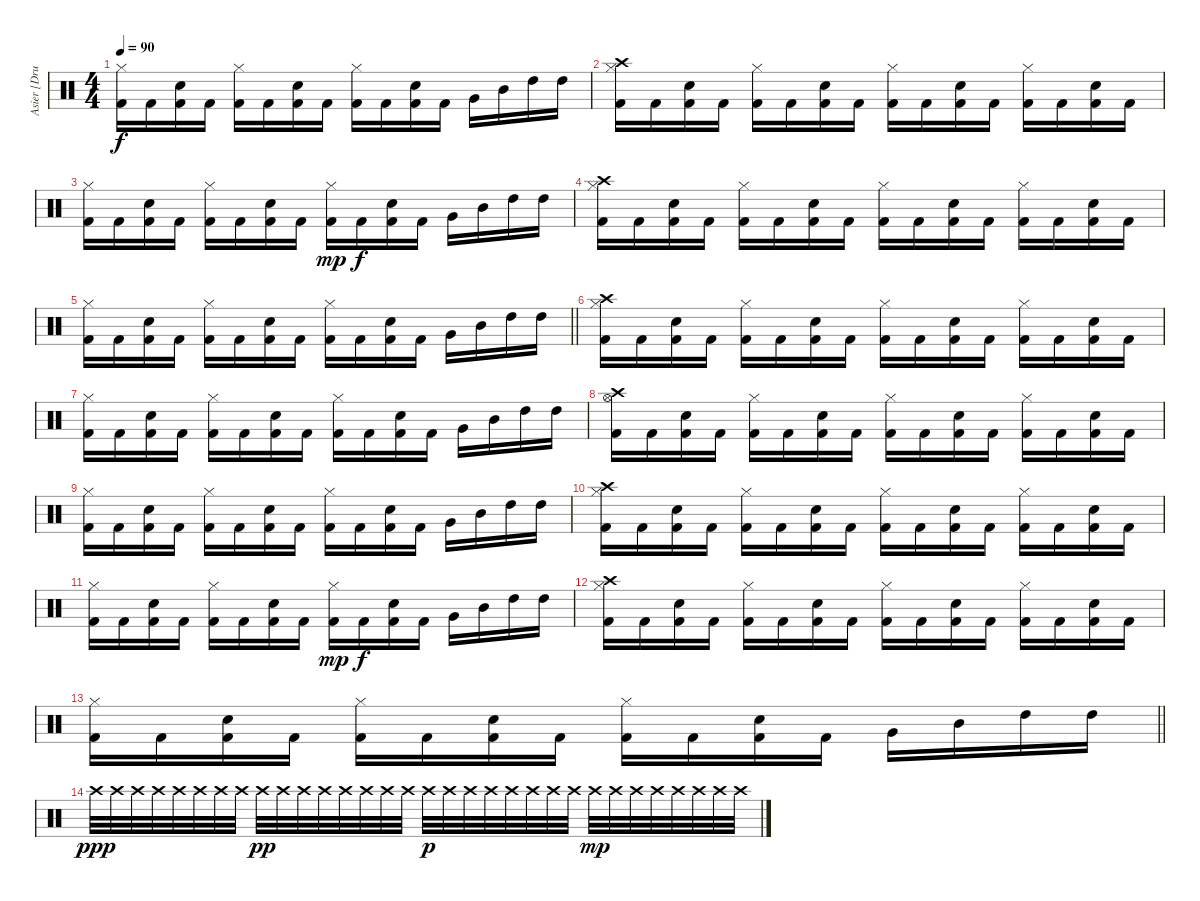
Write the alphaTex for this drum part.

\track ("Asier [Drums]" "Asier [Dru") {instrument percussion}
\staff {score}
\articulation defaults
\ts (4 4)
\tempo 90
\clef neutral
\ks c
("Hi-Hat (closed)" "Kick (hit) 2").16{dy f} "Kick (hit) 2".16 ("Snare (hit) 2" "Kick (hit) 2").16 "Kick (hit) 2".16 ("Hi-Hat (closed)" "Kick (hit) 2").16 "Kick (hit) 2".16 ("Snare (hit) 2" "Kick (hit) 2").16 "Kick (hit) 2".16 ("Hi-Hat (closed)" "Kick (hit) 2").16 "Kick (hit) 2".16 ("Snare (hit) 2" "Kick (hit) 2").16 "Kick (hit) 2".16 "Very Low Tom (hit)".16 "Mid Tom (hit)".16 "High Tom (hit)".16 "High Tom (hit)".16 |
("Crash high (hit)" "Hi-Hat (closed)" "Kick (hit) 2").16 "Kick (hit) 2".16 ("Snare (hit) 2" "Kick (hit) 2").16 "Kick (hit) 2".16 ("Hi-Hat (closed)" "Kick (hit) 2").16 "Kick (hit) 2".16 ("Snare (hit) 2" "Kick (hit) 2").16 "Kick (hit) 2".16 ("Hi-Hat (closed)" "Kick (hit) 2").16 "Kick (hit) 2".16 ("Snare (hit) 2" "Kick (hit) 2").16 "Kick (hit) 2".16 ("Hi-Hat (closed)" "Kick (hit) 2").16 "Kick (hit) 2".16 ("Snare (hit) 2" "Kick (hit) 2").16 "Kick (hit) 2".16 |
("Hi-Hat (closed)" "Kick (hit) 2").16 "Kick (hit) 2".16 ("Snare (hit) 2" "Kick (hit) 2").16 "Kick (hit) 2".16 ("Hi-Hat (closed)" "Kick (hit) 2").16 "Kick (hit) 2".16 ("Snare (hit) 2" "Kick (hit) 2").16 "Kick (hit) 2".16 ("Hi-Hat (closed)" "Kick (hit) 2").16{dy mp} "Kick (hit) 2".16{dy f} ("Snare (hit) 2" "Kick (hit) 2").16 "Kick (hit) 2".16 "Very Low Tom (hit)".16 "Mid Tom (hit)".16 "High Tom (hit)".16 "High Tom (hit)".16 |
("Crash high (hit)" "Hi-Hat (closed)" "Kick (hit) 2").16 "Kick (hit) 2".16 ("Snare (hit) 2" "Kick (hit) 2").16 "Kick (hit) 2".16 ("Hi-Hat (closed)" "Kick (hit) 2").16 "Kick (hit) 2".16 ("Snare (hit) 2" "Kick (hit) 2").16 "Kick (hit) 2".16 ("Hi-Hat (closed)" "Kick (hit) 2").16 "Kick (hit) 2".16 ("Snare (hit) 2" "Kick (hit) 2").16 "Kick (hit) 2".16 ("Hi-Hat (closed)" "Kick (hit) 2").16 "Kick (hit) 2".16 ("Snare (hit) 2" "Kick (hit) 2").16 "Kick (hit) 2".16 |
\barLineRight lightlight
("Hi-Hat (closed)" "Kick (hit) 2").16 "Kick (hit) 2".16 ("Snare (hit) 2" "Kick (hit) 2").16 "Kick (hit) 2".16 ("Hi-Hat (closed)" "Kick (hit) 2").16 "Kick (hit) 2".16 ("Snare (hit) 2" "Kick (hit) 2").16 "Kick (hit) 2".16 ("Hi-Hat (closed)" "Kick (hit) 2").16 "Kick (hit) 2".16 ("Snare (hit) 2" "Kick (hit) 2").16 "Kick (hit) 2".16 "Very Low Tom (hit)".16 "Mid Tom (hit)".16 "High Tom (hit)".16 "High Tom (hit)".16 |
("Crash high (hit)" "Hi-Hat (closed)" "Kick (hit) 2").16 "Kick (hit) 2".16 ("Snare (hit) 2" "Kick (hit) 2").16 "Kick (hit) 2".16 ("Hi-Hat (closed)" "Kick (hit) 2").16 "Kick (hit) 2".16 ("Snare (hit) 2" "Kick (hit) 2").16 "Kick (hit) 2".16 ("Hi-Hat (closed)" "Kick (hit) 2").16 "Kick (hit) 2".16 ("Snare (hit) 2" "Kick (hit) 2").16 "Kick (hit) 2".16 ("Hi-Hat (closed)" "Kick (hit) 2").16 "Kick (hit) 2".16 ("Snare (hit) 2" "Kick (hit) 2").16 "Kick (hit) 2".16 |
("Hi-Hat (closed)" "Kick (hit) 2").16 "Kick (hit) 2".16 ("Snare (hit) 2" "Kick (hit) 2").16 "Kick (hit) 2".16 ("Hi-Hat (closed)" "Kick (hit) 2").16 "Kick (hit) 2".16 ("Snare (hit) 2" "Kick (hit) 2").16 "Kick (hit) 2".16 ("Hi-Hat (closed)" "Kick (hit) 2").16 "Kick (hit) 2".16 ("Snare (hit) 2" "Kick (hit) 2").16 "Kick (hit) 2".16 "Very Low Tom (hit)".16 "Mid Tom (hit)".16 "High Tom (hit)".16 "High Tom (hit)".16 |
("Crash high (hit)" "Hi-Hat (open)" "Kick (hit) 2").16 "Kick (hit) 2".16 ("Snare (hit) 2" "Kick (hit) 2").16 "Kick (hit) 2".16 ("Hi-Hat (closed)" "Kick (hit) 2").16 "Kick (hit) 2".16 ("Snare (hit) 2" "Kick (hit) 2").16 "Kick (hit) 2".16 ("Hi-Hat (closed)" "Kick (hit) 2").16 "Kick (hit) 2".16 ("Snare (hit) 2" "Kick (hit) 2").16 "Kick (hit) 2".16 ("Hi-Hat (closed)" "Kick (hit) 2").16 "Kick (hit) 2".16 ("Snare (hit) 2" "Kick (hit) 2").16 "Kick (hit) 2".16 |
("Hi-Hat (closed)" "Kick (hit) 2").16 "Kick (hit) 2".16 ("Snare (hit) 2" "Kick (hit) 2").16 "Kick (hit) 2".16 ("Hi-Hat (closed)" "Kick (hit) 2").16 "Kick (hit) 2".16 ("Snare (hit) 2" "Kick (hit) 2").16 "Kick (hit) 2".16 ("Hi-Hat (closed)" "Kick (hit) 2").16 "Kick (hit) 2".16 ("Snare (hit) 2" "Kick (hit) 2").16 "Kick (hit) 2".16 "Very Low Tom (hit)".16 "Mid Tom (hit)".16 "High Tom (hit)".16 "High Tom (hit)".16 |
("Crash high (hit)" "Hi-Hat (closed)" "Kick (hit) 2").16 "Kick (hit) 2".16 ("Snare (hit) 2" "Kick (hit) 2").16 "Kick (hit) 2".16 ("Hi-Hat (closed)" "Kick (hit) 2").16 "Kick (hit) 2".16 ("Snare (hit) 2" "Kick (hit) 2").16 "Kick (hit) 2".16 ("Hi-Hat (closed)" "Kick (hit) 2").16 "Kick (hit) 2".16 ("Snare (hit) 2" "Kick (hit) 2").16 "Kick (hit) 2".16 ("Hi-Hat (closed)" "Kick (hit) 2").16 "Kick (hit) 2".16 ("Snare (hit) 2" "Kick (hit) 2").16 "Kick (hit) 2".16 |
("Hi-Hat (closed)" "Kick (hit) 2").16 "Kick (hit) 2".16 ("Snare (hit) 2" "Kick (hit) 2").16 "Kick (hit) 2".16 ("Hi-Hat (closed)" "Kick (hit) 2").16 "Kick (hit) 2".16 ("Snare (hit) 2" "Kick (hit) 2").16 "Kick (hit) 2".16 ("Hi-Hat (closed)" "Kick (hit) 2").16{dy mp} "Kick (hit) 2".16{dy f} ("Snare (hit) 2" "Kick (hit) 2").16 "Kick (hit) 2".16 "Very Low Tom (hit)".16 "Mid Tom (hit)".16 "High Tom (hit)".16 "High Tom (hit)".16 |
("Crash high (hit)" "Hi-Hat (closed)" "Kick (hit) 2").16 "Kick (hit) 2".16 ("Snare (hit) 2" "Kick (hit) 2").16 "Kick (hit) 2".16 ("Hi-Hat (closed)" "Kick (hit) 2").16 "Kick (hit) 2".16 ("Snare (hit) 2" "Kick (hit) 2").16 "Kick (hit) 2".16 ("Hi-Hat (closed)" "Kick (hit) 2").16 "Kick (hit) 2".16 ("Snare (hit) 2" "Kick (hit) 2").16 "Kick (hit) 2".16 ("Hi-Hat (closed)" "Kick (hit) 2").16 "Kick (hit) 2".16 ("Snare (hit) 2" "Kick (hit) 2").16 "Kick (hit) 2".16 |
\barLineRight lightlight
("Hi-Hat (closed)" "Kick (hit) 2").16 "Kick (hit) 2".16 ("Snare (hit) 2" "Kick (hit) 2").16 "Kick (hit) 2".16 ("Hi-Hat (closed)" "Kick (hit) 2").16 "Kick (hit) 2".16 ("Snare (hit) 2" "Kick (hit) 2").16 "Kick (hit) 2".16 ("Hi-Hat (closed)" "Kick (hit) 2").16 "Kick (hit) 2".16 ("Snare (hit) 2" "Kick (hit) 2").16 "Kick (hit) 2".16 "Very Low Tom (hit)".16 "Mid Tom (hit)".16 "High Tom (hit)".16 "High Tom (hit)".16 |
"Crash high (hit)".32{dy ppp} "Crash high (hit)".32 "Crash high (hit)".32 "Crash high (hit)".32 "Crash high (hit)".32 "Crash high (hit)".32 "Crash high (hit)".32 "Crash high (hit)".32 "Crash high (hit)".32{dy pp} "Crash high (hit)".32 "Crash high (hit)".32 "Crash high (hit)".32 "Crash high (hit)".32 "Crash high (hit)".32 "Crash high (hit)".32 "Crash high (hit)".32 "Crash high (hit)".32{dy p} "Crash high (hit)".32 "Crash high (hit)".32 "Crash high (hit)".32 "Crash high (hit)".32 "Crash high (hit)".32 "Crash high (hit)".32 "Crash high (hit)".32 "Crash high (hit)".32{dy mp} "Crash high (hit)".32 "Crash high (hit)".32 "Crash high (hit)".32 "Crash high (hit)".32 "Crash high (hit)".32 "Crash high (hit)".32 "Crash high (hit)".32
